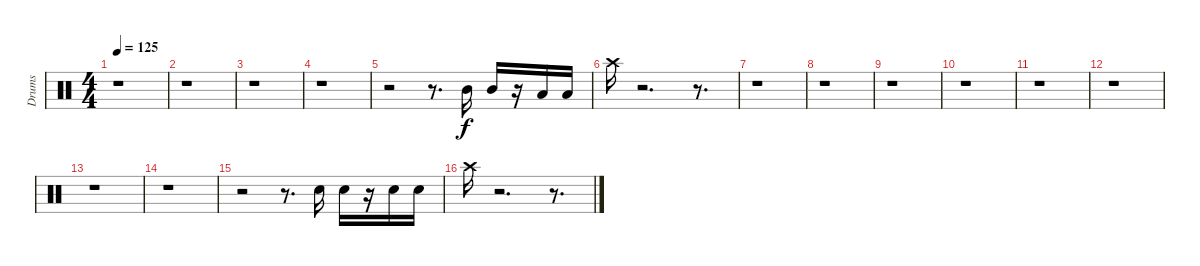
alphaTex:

\track ("Drums" "Drums") {instrument percussion}
\staff {score}
\articulation defaults
\ts (4 4)
\tempo 125
\clef neutral
\ks c
r.1{dy f} |
r.1 |
r.1 |
r.1 |
r.2 r.8{d} "Mid Tom (hit)".16 "Mid Tom (hit)".16 r.16 "Low Tom (hit)".16 "Low Tom (hit)".16 |
"Crash high (hit)".16 r.2{d} r.8{d} |
r.1 |
r.1 |
r.1 |
r.1 |
r.1 |
r.1 |
r.1 |
r.1 |
r.2 r.8{d} "Electric Snare (hit)".16 "Electric Snare (hit)".16 r.16 "Snare (hit) 2".16 "Snare (hit) 2".16 |
"Crash high (hit)".16 r.2{d} r.8{d}
